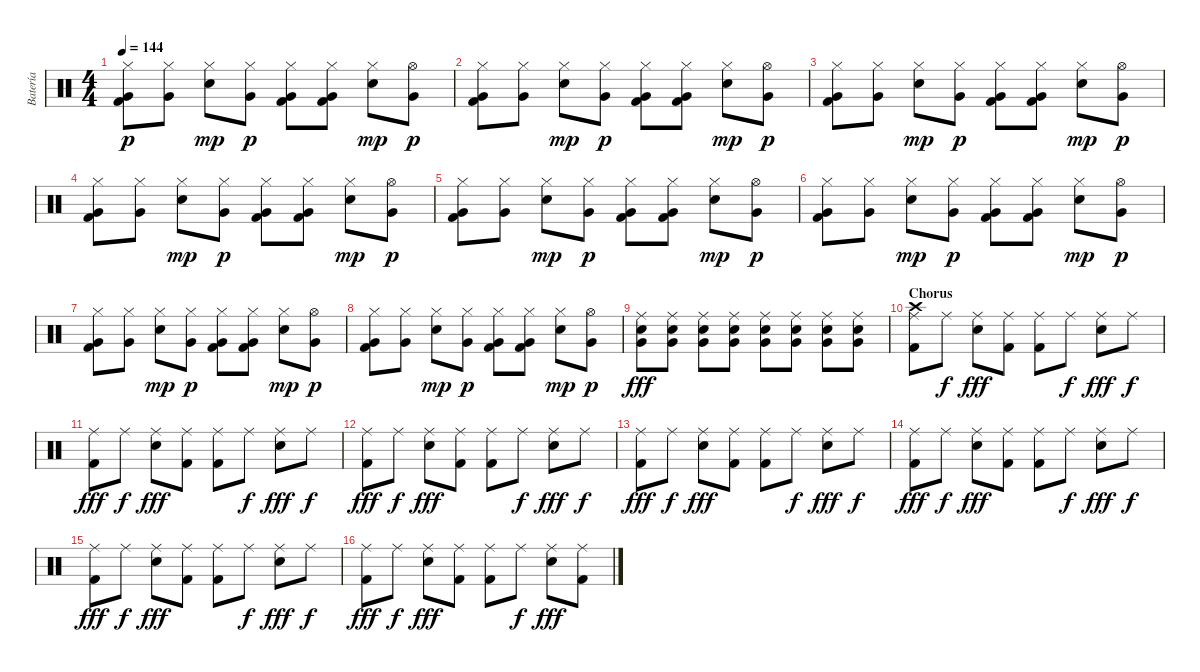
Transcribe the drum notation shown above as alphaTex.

\track ("Batería" "Batería") {instrument percussion}
\staff {score}
\articulation defaults
\ts (4 4)
\tempo 144
\clef neutral
\ks c
("Hi-Hat (closed)" "Kick (hit) 2" "Very Low Tom (hit)").8{dy p} ("Hi-Hat (closed)" "Very Low Tom (hit)").8 ("Hi-Hat (closed)" "Electric Snare (hit)").8{dy mp} ("Hi-Hat (closed)" "Very Low Tom (hit)").8{dy p} ("Hi-Hat (closed)" "Kick (hit) 2" "Very Low Tom (hit)").8 ("Hi-Hat (closed)" "Kick (hit) 2" "Very Low Tom (hit)").8 ("Hi-Hat (closed)" "Electric Snare (hit)").8{dy mp} ("Hi-Hat (open)" "Very Low Tom (hit)").8{dy p} |
("Hi-Hat (closed)" "Kick (hit) 2" "Very Low Tom (hit)").8 ("Hi-Hat (closed)" "Very Low Tom (hit)").8 ("Hi-Hat (closed)" "Electric Snare (hit)").8{dy mp} ("Hi-Hat (closed)" "Very Low Tom (hit)").8{dy p} ("Hi-Hat (closed)" "Kick (hit) 2" "Very Low Tom (hit)").8 ("Hi-Hat (closed)" "Kick (hit) 2" "Very Low Tom (hit)").8 ("Hi-Hat (closed)" "Electric Snare (hit)").8{dy mp} ("Hi-Hat (open)" "Very Low Tom (hit)").8{dy p} |
("Hi-Hat (closed)" "Kick (hit) 2" "Very Low Tom (hit)").8 ("Hi-Hat (closed)" "Very Low Tom (hit)").8 ("Hi-Hat (closed)" "Electric Snare (hit)").8{dy mp} ("Hi-Hat (closed)" "Very Low Tom (hit)").8{dy p} ("Hi-Hat (closed)" "Kick (hit) 2" "Very Low Tom (hit)").8 ("Hi-Hat (closed)" "Kick (hit) 2" "Very Low Tom (hit)").8 ("Hi-Hat (closed)" "Electric Snare (hit)").8{dy mp} ("Hi-Hat (open)" "Very Low Tom (hit)").8{dy p} |
("Hi-Hat (closed)" "Kick (hit) 2" "Very Low Tom (hit)").8 ("Hi-Hat (closed)" "Very Low Tom (hit)").8 ("Hi-Hat (closed)" "Electric Snare (hit)").8{dy mp} ("Hi-Hat (closed)" "Very Low Tom (hit)").8{dy p} ("Hi-Hat (closed)" "Kick (hit) 2" "Very Low Tom (hit)").8 ("Hi-Hat (closed)" "Kick (hit) 2" "Very Low Tom (hit)").8 ("Hi-Hat (closed)" "Electric Snare (hit)").8{dy mp} ("Hi-Hat (open)" "Very Low Tom (hit)").8{dy p} |
("Hi-Hat (closed)" "Kick (hit) 2" "Very Low Tom (hit)").8 ("Hi-Hat (closed)" "Very Low Tom (hit)").8 ("Hi-Hat (closed)" "Electric Snare (hit)").8{dy mp} ("Hi-Hat (closed)" "Very Low Tom (hit)").8{dy p} ("Hi-Hat (closed)" "Kick (hit) 2" "Very Low Tom (hit)").8 ("Hi-Hat (closed)" "Kick (hit) 2" "Very Low Tom (hit)").8 ("Hi-Hat (closed)" "Electric Snare (hit)").8{dy mp} ("Hi-Hat (open)" "Very Low Tom (hit)").8{dy p} |
("Hi-Hat (closed)" "Kick (hit) 2" "Very Low Tom (hit)").8 ("Hi-Hat (closed)" "Very Low Tom (hit)").8 ("Hi-Hat (closed)" "Electric Snare (hit)").8{dy mp} ("Hi-Hat (closed)" "Very Low Tom (hit)").8{dy p} ("Hi-Hat (closed)" "Kick (hit) 2" "Very Low Tom (hit)").8 ("Hi-Hat (closed)" "Kick (hit) 2" "Very Low Tom (hit)").8 ("Hi-Hat (closed)" "Electric Snare (hit)").8{dy mp} ("Hi-Hat (open)" "Very Low Tom (hit)").8{dy p} |
("Hi-Hat (closed)" "Kick (hit) 2" "Very Low Tom (hit)").8 ("Hi-Hat (closed)" "Very Low Tom (hit)").8 ("Hi-Hat (closed)" "Electric Snare (hit)").8{dy mp} ("Hi-Hat (closed)" "Very Low Tom (hit)").8{dy p} ("Hi-Hat (closed)" "Kick (hit) 2" "Very Low Tom (hit)").8 ("Hi-Hat (closed)" "Kick (hit) 2" "Very Low Tom (hit)").8 ("Hi-Hat (closed)" "Electric Snare (hit)").8{dy mp} ("Hi-Hat (open)" "Very Low Tom (hit)").8{dy p} |
("Hi-Hat (closed)" "Kick (hit) 2" "Very Low Tom (hit)").8 ("Hi-Hat (closed)" "Very Low Tom (hit)").8 ("Hi-Hat (closed)" "Electric Snare (hit)").8{dy mp} ("Hi-Hat (closed)" "Very Low Tom (hit)").8{dy p} ("Hi-Hat (closed)" "Kick (hit) 2" "Very Low Tom (hit)").8 ("Hi-Hat (closed)" "Kick (hit) 2" "Very Low Tom (hit)").8 ("Hi-Hat (closed)" "Electric Snare (hit)").8{dy mp} ("Hi-Hat (open)" "Very Low Tom (hit)").8{dy p} |
("Ride (middle)" "Electric Snare (hit)" "Very Low Tom (hit)").8{dy fff} ("Ride (middle)" "Electric Snare (hit)" "Very Low Tom (hit)").8 ("Ride (middle)" "Electric Snare (hit)" "Very Low Tom (hit)").8 ("Ride (middle)" "Electric Snare (hit)" "Very Low Tom (hit)").8 ("Ride (middle)" "Electric Snare (hit)" "Very Low Tom (hit)").8 ("Ride (middle)" "Electric Snare (hit)" "Very Low Tom (hit)").8 ("Ride (middle)" "Electric Snare (hit)" "Very Low Tom (hit)").8 ("Ride (middle)" "Electric Snare (hit)" "Very Low Tom (hit)").8 |
\section ("" "Chorus")
("Ride (middle)" "Kick (hit) 2" "Crash high (hit)").8 "Ride (middle)".8{dy f} ("Ride (middle)" "Electric Snare (hit)").8{dy fff} ("Ride (middle)" "Kick (hit) 2").8 ("Ride (middle)" "Kick (hit) 2").8 "Ride (middle)".8{dy f} ("Ride (middle)" "Electric Snare (hit)").8{dy fff} "Ride (middle)".8{dy f} |
("Ride (middle)" "Kick (hit) 2").8{dy fff} "Ride (middle)".8{dy f} ("Ride (middle)" "Electric Snare (hit)").8{dy fff} ("Ride (middle)" "Kick (hit) 2").8 ("Ride (middle)" "Kick (hit) 2").8 "Ride (middle)".8{dy f} ("Ride (middle)" "Electric Snare (hit)").8{dy fff} "Ride (middle)".8{dy f} |
("Ride (middle)" "Kick (hit) 2").8{dy fff} "Ride (middle)".8{dy f} ("Ride (middle)" "Electric Snare (hit)").8{dy fff} ("Ride (middle)" "Kick (hit) 2").8 ("Ride (middle)" "Kick (hit) 2").8 "Ride (middle)".8{dy f} ("Ride (middle)" "Electric Snare (hit)").8{dy fff} "Ride (middle)".8{dy f} |
("Ride (middle)" "Kick (hit) 2").8{dy fff} "Ride (middle)".8{dy f} ("Ride (middle)" "Electric Snare (hit)").8{dy fff} ("Ride (middle)" "Kick (hit) 2").8 ("Ride (middle)" "Kick (hit) 2").8 "Ride (middle)".8{dy f} ("Ride (middle)" "Electric Snare (hit)").8{dy fff} "Ride (middle)".8{dy f} |
("Ride (middle)" "Kick (hit) 2").8{dy fff} "Ride (middle)".8{dy f} ("Ride (middle)" "Electric Snare (hit)").8{dy fff} ("Ride (middle)" "Kick (hit) 2").8 ("Ride (middle)" "Kick (hit) 2").8 "Ride (middle)".8{dy f} ("Ride (middle)" "Electric Snare (hit)").8{dy fff} "Ride (middle)".8{dy f} |
("Ride (middle)" "Kick (hit) 2").8{dy fff} "Ride (middle)".8{dy f} ("Ride (middle)" "Electric Snare (hit)").8{dy fff} ("Ride (middle)" "Kick (hit) 2").8 ("Ride (middle)" "Kick (hit) 2").8 "Ride (middle)".8{dy f} ("Ride (middle)" "Electric Snare (hit)").8{dy fff} "Ride (middle)".8{dy f} |
("Ride (middle)" "Kick (hit) 2").8{dy fff} "Ride (middle)".8{dy f} ("Ride (middle)" "Electric Snare (hit)").8{dy fff} ("Ride (middle)" "Kick (hit) 2").8 ("Ride (middle)" "Kick (hit) 2").8 "Ride (middle)".8{dy f} ("Ride (middle)" "Electric Snare (hit)").8{dy fff} ("Ride (middle)" "Kick (hit) 2").8
